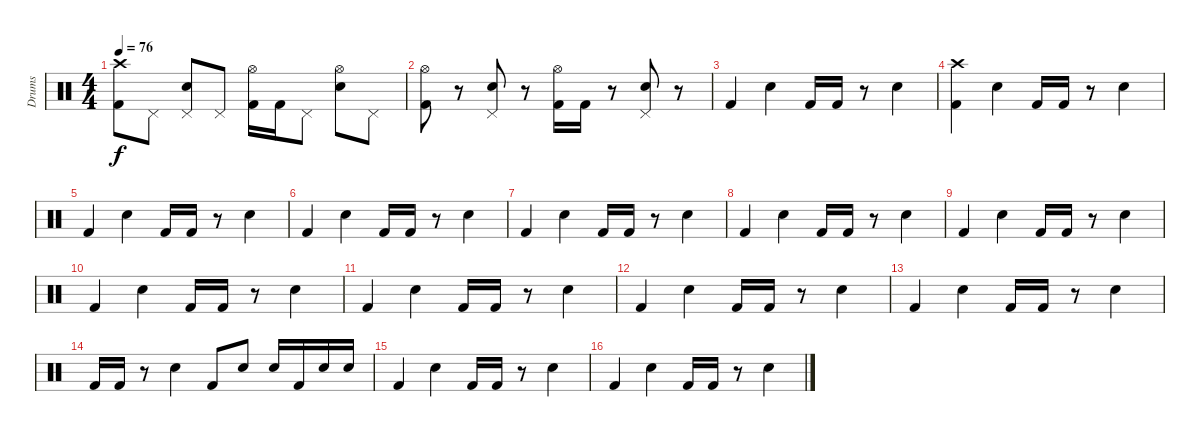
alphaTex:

\track ("Drums" "Drums") {instrument percussion}
\staff {score}
\articulation defaults
\ts (4 4)
\tempo 76
\clef neutral
\ks c
("Kick (hit) 2" "Crash high (hit)").8{dy f} "Pedal Hi-Hat (hit)".8 ("Snare (hit) 2" "Pedal Hi-Hat (hit)").8 "Pedal Hi-Hat (hit)".8 ("Kick (hit) 2" "Hi-Hat (open)").16 "Kick (hit) 2".16 "Pedal Hi-Hat (hit)".8 ("Snare (hit) 2" "Hi-Hat (open)").8 "Pedal Hi-Hat (hit)".8 |
("Kick (hit) 2" "Hi-Hat (open)").8 r.8 ("Snare (hit) 2" "Pedal Hi-Hat (hit)").8 r.8 ("Kick (hit) 2" "Hi-Hat (open)").16 "Kick (hit) 2".16 r.8 ("Snare (hit) 2" "Pedal Hi-Hat (hit)").8 r.8 |
"Kick (hit) 2".4 "Snare (hit) 2".4 "Kick (hit) 2".16 "Kick (hit) 2".16 r.8 "Snare (hit) 2".4 |
("Kick (hit) 2" "Crash high (hit)").4 "Snare (hit) 2".4 "Kick (hit) 2".16 "Kick (hit) 2".16 r.8 "Snare (hit) 2".4 |
"Kick (hit) 2".4 "Snare (hit) 2".4 "Kick (hit) 2".16 "Kick (hit) 2".16 r.8 "Snare (hit) 2".4 |
"Kick (hit) 2".4 "Snare (hit) 2".4 "Kick (hit) 2".16 "Kick (hit) 2".16 r.8 "Snare (hit) 2".4 |
"Kick (hit) 2".4 "Snare (hit) 2".4 "Kick (hit) 2".16 "Kick (hit) 2".16 r.8 "Snare (hit) 2".4 |
"Kick (hit) 2".4 "Snare (hit) 2".4 "Kick (hit) 2".16 "Kick (hit) 2".16 r.8 "Snare (hit) 2".4 |
"Kick (hit) 2".4 "Snare (hit) 2".4 "Kick (hit) 2".16 "Kick (hit) 2".16 r.8 "Snare (hit) 2".4 |
"Kick (hit) 2".4 "Snare (hit) 2".4 "Kick (hit) 2".16 "Kick (hit) 2".16 r.8 "Snare (hit) 2".4 |
"Kick (hit) 2".4 "Snare (hit) 2".4 "Kick (hit) 2".16 "Kick (hit) 2".16 r.8 "Snare (hit) 2".4 |
"Kick (hit) 2".4 "Snare (hit) 2".4 "Kick (hit) 2".16 "Kick (hit) 2".16 r.8 "Snare (hit) 2".4 |
"Kick (hit) 2".4 "Snare (hit) 2".4 "Kick (hit) 2".16 "Kick (hit) 2".16 r.8 "Snare (hit) 2".4 |
"Kick (hit) 2".16 "Kick (hit) 2".16 r.8 "Snare (hit) 2".4 "Kick (hit) 2".8 "Snare (hit) 2".8 "Snare (hit) 2".16 "Kick (hit) 2".16 "Snare (hit) 2".16 "Snare (hit) 2".16 |
"Kick (hit) 2".4 "Snare (hit) 2".4 "Kick (hit) 2".16 "Kick (hit) 2".16 r.8 "Snare (hit) 2".4 |
"Kick (hit) 2".4 "Snare (hit) 2".4 "Kick (hit) 2".16 "Kick (hit) 2".16 r.8 "Snare (hit) 2".4
